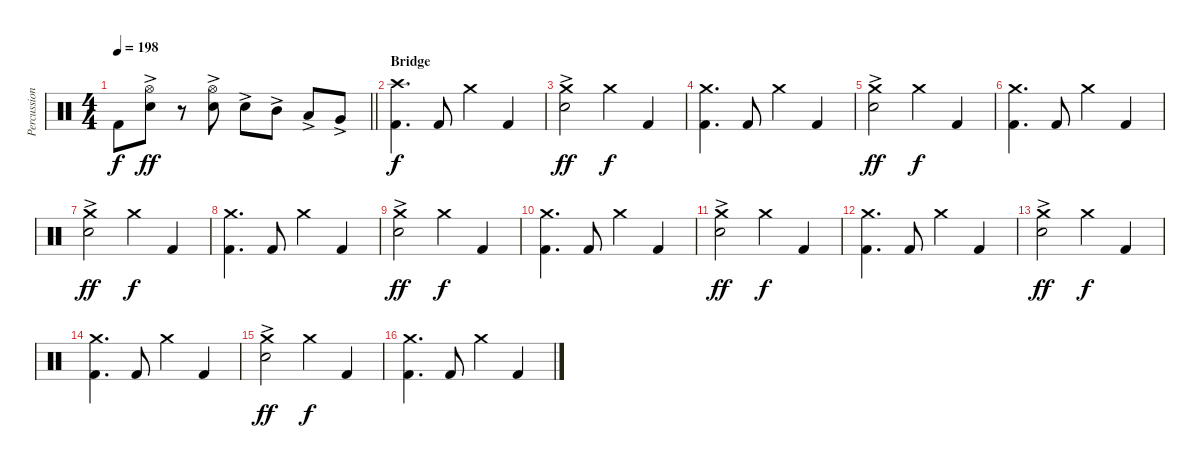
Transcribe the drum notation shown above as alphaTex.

\track ("Percussion" "Percussion") {instrument percussion}
\staff {score}
\articulation defaults
\ts (4 4)
\tempo 198
\clef neutral
\barLineRight lightlight
\ks c "Kick (hit) 2".8{dy f}
("Hi-Hat (open)" "Electric Snare (hit)"{ac}).8{dy ff} r.8 ("Hi-Hat (open)" "Electric Snare (hit)"{ac}).8 "Electric Snare (hit)"{ac}.8 "Mid Tom (hit)"{ac}.8 "Low Tom (hit)"{ac}.8 "Very Low Tom (hit)"{ac}.8 |
\section ("" "Bridge")
("Crash high (hit)" "Kick (hit) 2").4{d dy f} "Kick (hit) 2".8 "Crash medium (hit)".4 "Kick (hit) 2".4 |
("Crash medium (hit)" "Electric Snare (hit)"{ac}).2{dy ff} "Crash medium (hit)".4{dy f} "Kick (hit) 2".4 |
("Crash medium (hit)" "Kick (hit) 2").4{d} "Kick (hit) 2".8 "Crash medium (hit)".4 "Kick (hit) 2".4 |
("Crash medium (hit)" "Electric Snare (hit)"{ac}).2{dy ff} "Crash medium (hit)".4{dy f} "Kick (hit) 2".4 |
("Crash medium (hit)" "Kick (hit) 2").4{d} "Kick (hit) 2".8 "Crash medium (hit)".4 "Kick (hit) 2".4 |
("Crash medium (hit)" "Electric Snare (hit)"{ac}).2{dy ff} "Crash medium (hit)".4{dy f} "Kick (hit) 2".4 |
("Crash medium (hit)" "Kick (hit) 2").4{d} "Kick (hit) 2".8 "Crash medium (hit)".4 "Kick (hit) 2".4 |
("Crash medium (hit)" "Electric Snare (hit)"{ac}).2{dy ff} "Crash medium (hit)".4{dy f} "Kick (hit) 2".4 |
("Crash medium (hit)" "Kick (hit) 2").4{d} "Kick (hit) 2".8 "Crash medium (hit)".4 "Kick (hit) 2".4 |
("Crash medium (hit)" "Electric Snare (hit)"{ac}).2{dy ff} "Crash medium (hit)".4{dy f} "Kick (hit) 2".4 |
("Crash medium (hit)" "Kick (hit) 2").4{d} "Kick (hit) 2".8 "Crash medium (hit)".4 "Kick (hit) 2".4 |
("Crash medium (hit)" "Electric Snare (hit)"{ac}).2{dy ff} "Crash medium (hit)".4{dy f} "Kick (hit) 2".4 |
("Crash medium (hit)" "Kick (hit) 2").4{d} "Kick (hit) 2".8 "Crash medium (hit)".4 "Kick (hit) 2".4 |
("Crash medium (hit)" "Electric Snare (hit)"{ac}).2{dy ff} "Crash medium (hit)".4{dy f} "Kick (hit) 2".4 |
("Crash medium (hit)" "Kick (hit) 2").4{d} "Kick (hit) 2".8 "Crash medium (hit)".4 "Kick (hit) 2".4
